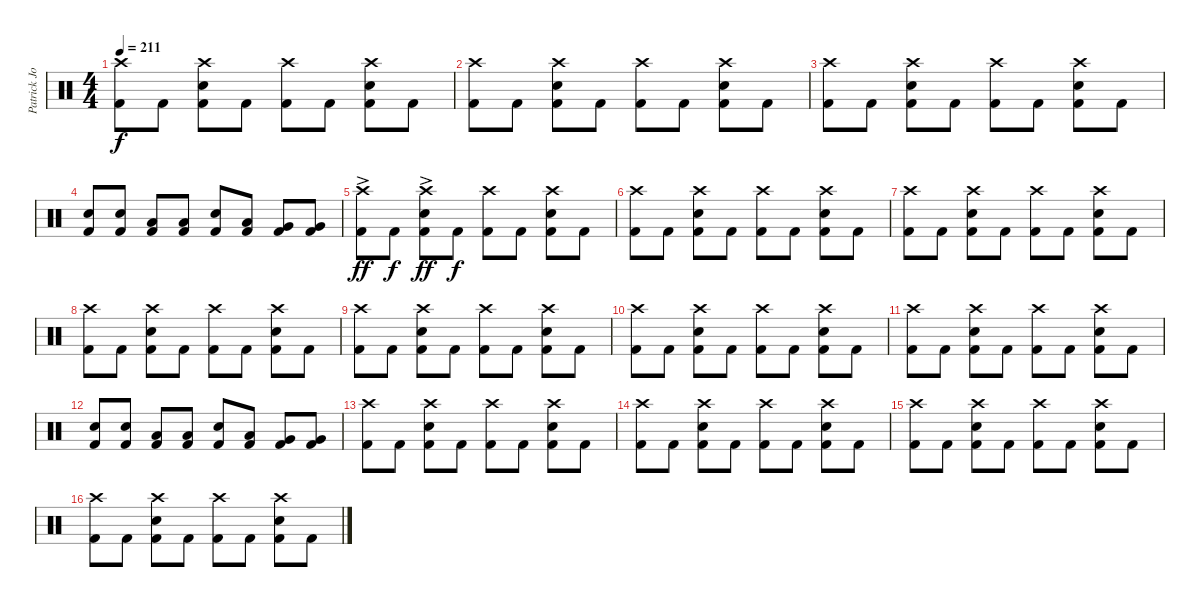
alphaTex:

\track ("Patrick Johansson" "Patrick Jo") {instrument percussion}
\staff {score}
\articulation defaults
\ts (4 4)
\tempo 211
\clef neutral
\ks c
("Crash high (hit)" "Kick (hit) 2").8{dy f} "Kick (hit) 2".8 ("Crash high (hit)" "Electric Snare (hit)" "Kick (hit) 2").8 "Kick (hit) 2".8 ("Crash high (hit)" "Kick (hit) 2").8 "Kick (hit) 2".8 ("Crash high (hit)" "Electric Snare (hit)" "Kick (hit) 2").8 "Kick (hit) 2".8 |
("Crash high (hit)" "Kick (hit) 2").8 "Kick (hit) 2".8 ("Crash high (hit)" "Electric Snare (hit)" "Kick (hit) 2").8 "Kick (hit) 2".8 ("Crash high (hit)" "Kick (hit) 2").8 "Kick (hit) 2".8 ("Crash high (hit)" "Electric Snare (hit)" "Kick (hit) 2").8 "Kick (hit) 2".8 |
("Crash high (hit)" "Kick (hit) 2").8 "Kick (hit) 2".8 ("Crash high (hit)" "Electric Snare (hit)" "Kick (hit) 2").8 "Kick (hit) 2".8 ("Crash high (hit)" "Kick (hit) 2").8 "Kick (hit) 2".8 ("Crash high (hit)" "Electric Snare (hit)" "Kick (hit) 2").8 "Kick (hit) 2".8 |
("Electric Snare (hit)" "Kick (hit) 2").8 ("Electric Snare (hit)" "Kick (hit) 2").8 ("Low Tom (hit)" "Kick (hit) 2").8 ("Low Tom (hit)" "Kick (hit) 2").8 ("Electric Snare (hit)" "Kick (hit) 2").8 ("Low Tom (hit)" "Kick (hit) 2").8 ("Very Low Tom (hit)" "Kick (hit) 2").8 ("Very Low Tom (hit)" "Kick (hit) 2").8 |
("Crash high (hit)"{ac} "Kick (hit) 2").8{dy ff} "Kick (hit) 2".8{dy f} ("Crash high (hit)"{ac} "Electric Snare (hit)" "Kick (hit) 2").8{dy ff} "Kick (hit) 2".8{dy f} ("Crash high (hit)" "Kick (hit) 2").8 "Kick (hit) 2".8 ("Crash high (hit)" "Electric Snare (hit)" "Kick (hit) 2").8 "Kick (hit) 2".8 |
("Crash high (hit)" "Kick (hit) 2").8 "Kick (hit) 2".8 ("Crash high (hit)" "Electric Snare (hit)" "Kick (hit) 2").8 "Kick (hit) 2".8 ("Crash high (hit)" "Kick (hit) 2").8 "Kick (hit) 2".8 ("Crash high (hit)" "Electric Snare (hit)" "Kick (hit) 2").8 "Kick (hit) 2".8 |
("Crash high (hit)" "Kick (hit) 2").8 "Kick (hit) 2".8 ("Crash high (hit)" "Electric Snare (hit)" "Kick (hit) 2").8 "Kick (hit) 2".8 ("Crash high (hit)" "Kick (hit) 2").8 "Kick (hit) 2".8 ("Crash high (hit)" "Electric Snare (hit)" "Kick (hit) 2").8 "Kick (hit) 2".8 |
("Crash high (hit)" "Kick (hit) 2").8 "Kick (hit) 2".8 ("Crash high (hit)" "Electric Snare (hit)" "Kick (hit) 2").8 "Kick (hit) 2".8 ("Crash high (hit)" "Kick (hit) 2").8 "Kick (hit) 2".8 ("Crash high (hit)" "Electric Snare (hit)" "Kick (hit) 2").8 "Kick (hit) 2".8 |
("Crash high (hit)" "Kick (hit) 2").8 "Kick (hit) 2".8 ("Crash high (hit)" "Electric Snare (hit)" "Kick (hit) 2").8 "Kick (hit) 2".8 ("Crash high (hit)" "Kick (hit) 2").8 "Kick (hit) 2".8 ("Crash high (hit)" "Electric Snare (hit)" "Kick (hit) 2").8 "Kick (hit) 2".8 |
("Crash high (hit)" "Kick (hit) 2").8 "Kick (hit) 2".8 ("Crash high (hit)" "Electric Snare (hit)" "Kick (hit) 2").8 "Kick (hit) 2".8 ("Crash high (hit)" "Kick (hit) 2").8 "Kick (hit) 2".8 ("Crash high (hit)" "Electric Snare (hit)" "Kick (hit) 2").8 "Kick (hit) 2".8 |
("Crash high (hit)" "Kick (hit) 2").8 "Kick (hit) 2".8 ("Crash high (hit)" "Electric Snare (hit)" "Kick (hit) 2").8 "Kick (hit) 2".8 ("Crash high (hit)" "Kick (hit) 2").8 "Kick (hit) 2".8 ("Crash high (hit)" "Electric Snare (hit)" "Kick (hit) 2").8 "Kick (hit) 2".8 |
("Electric Snare (hit)" "Kick (hit) 2").8 ("Electric Snare (hit)" "Kick (hit) 2").8 ("Low Tom (hit)" "Kick (hit) 2").8 ("Low Tom (hit)" "Kick (hit) 2").8 ("Electric Snare (hit)" "Kick (hit) 2").8 ("Low Tom (hit)" "Kick (hit) 2").8 ("Very Low Tom (hit)" "Kick (hit) 2").8 ("Very Low Tom (hit)" "Kick (hit) 2").8 |
("Crash high (hit)" "Kick (hit) 2").8 "Kick (hit) 2".8 ("Crash high (hit)" "Electric Snare (hit)" "Kick (hit) 2").8 "Kick (hit) 2".8 ("Crash high (hit)" "Kick (hit) 2").8 "Kick (hit) 2".8 ("Crash high (hit)" "Electric Snare (hit)" "Kick (hit) 2").8 "Kick (hit) 2".8 |
("Crash high (hit)" "Kick (hit) 2").8 "Kick (hit) 2".8 ("Crash high (hit)" "Electric Snare (hit)" "Kick (hit) 2").8 "Kick (hit) 2".8 ("Crash high (hit)" "Kick (hit) 2").8 "Kick (hit) 2".8 ("Crash high (hit)" "Electric Snare (hit)" "Kick (hit) 2").8 "Kick (hit) 2".8 |
("Crash high (hit)" "Kick (hit) 2").8 "Kick (hit) 2".8 ("Crash high (hit)" "Electric Snare (hit)" "Kick (hit) 2").8 "Kick (hit) 2".8 ("Crash high (hit)" "Kick (hit) 2").8 "Kick (hit) 2".8 ("Crash high (hit)" "Electric Snare (hit)" "Kick (hit) 2").8 "Kick (hit) 2".8 |
("Crash high (hit)" "Kick (hit) 2").8 "Kick (hit) 2".8 ("Crash high (hit)" "Electric Snare (hit)" "Kick (hit) 2").8 "Kick (hit) 2".8 ("Crash high (hit)" "Kick (hit) 2").8 "Kick (hit) 2".8 ("Crash high (hit)" "Electric Snare (hit)" "Kick (hit) 2").8 "Kick (hit) 2".8
